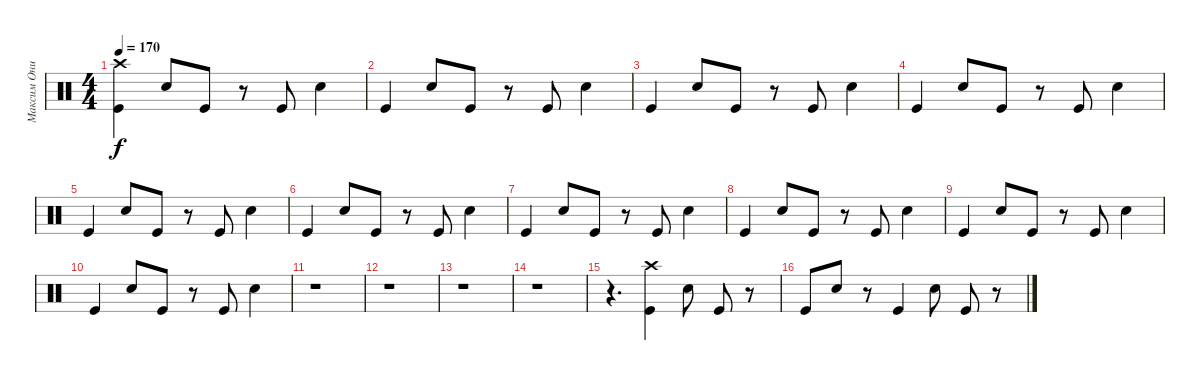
\track ("Максим Онищенко" "Максим Они") {instrument percussion}
\staff {score}
\articulation defaults
\ts (4 4)
\tempo 170
\clef neutral
\ks c
("Kick (hit)" "Crash high (hit)").4{dy f} "Snare (hit) 2".8 "Kick (hit)".8 r.8 "Kick (hit)".8 "Snare (hit) 2".4 |
"Kick (hit)".4 "Snare (hit) 2".8 "Kick (hit)".8 r.8 "Kick (hit)".8 "Snare (hit) 2".4 |
"Kick (hit)".4 "Snare (hit) 2".8 "Kick (hit)".8 r.8 "Kick (hit)".8 "Snare (hit) 2".4 |
"Kick (hit)".4 "Snare (hit) 2".8 "Kick (hit)".8 r.8 "Kick (hit)".8 "Snare (hit) 2".4 |
"Kick (hit)".4 "Snare (hit) 2".8 "Kick (hit)".8 r.8 "Kick (hit)".8 "Snare (hit) 2".4 |
"Kick (hit)".4 "Snare (hit) 2".8 "Kick (hit)".8 r.8 "Kick (hit)".8 "Snare (hit) 2".4 |
"Kick (hit)".4 "Snare (hit) 2".8 "Kick (hit)".8 r.8 "Kick (hit)".8 "Snare (hit) 2".4 |
"Kick (hit)".4 "Snare (hit) 2".8 "Kick (hit)".8 r.8 "Kick (hit)".8 "Snare (hit) 2".4 |
"Kick (hit)".4 "Snare (hit) 2".8 "Kick (hit)".8 r.8 "Kick (hit)".8 "Snare (hit) 2".4 |
"Kick (hit)".4 "Snare (hit) 2".8 "Kick (hit)".8 r.8 "Kick (hit)".8 "Snare (hit) 2".4 |
r.1 |
r.1 |
r.1 |
r.1 |
r.4{d} ("Kick (hit)" "Crash high (hit)").4 "Snare (hit) 2".8 "Kick (hit)".8 r.8 |
"Kick (hit)".8 "Snare (hit) 2".8 r.8 "Kick (hit)".4 "Snare (hit) 2".8 "Kick (hit)".8 r.8
